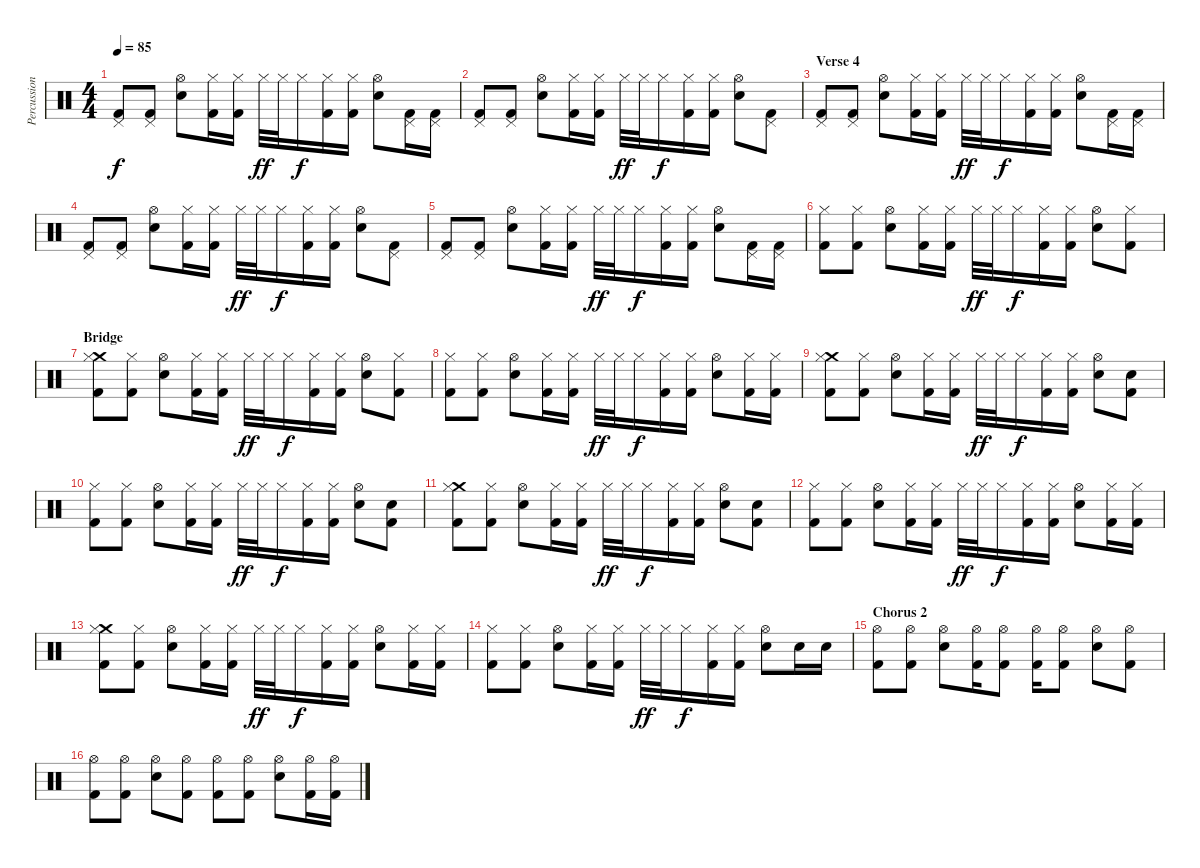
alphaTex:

\track ("Percussion" "Percussion") {instrument percussion}
\staff {score}
\articulation defaults
\ts (4 4)
\tempo 85
\clef neutral
\ks c
("Pedal Hi-Hat (hit)" "Kick (hit) 2").8{dy f} ("Pedal Hi-Hat (hit)" "Kick (hit) 2").8 ("Hi-Hat (open)" "Electric Snare (hit)").8 ("Hi-Hat (closed)" "Kick (hit) 2").16 ("Hi-Hat (closed)" "Kick (hit) 2").16 "Hi-Hat (closed)".32{dy ff} "Hi-Hat (closed)".32 "Hi-Hat (closed)".16{dy f} ("Hi-Hat (closed)" "Kick (hit) 2").16 ("Hi-Hat (closed)" "Kick (hit) 2").16 ("Hi-Hat (open)" "Electric Snare (hit)").8 ("Pedal Hi-Hat (hit)" "Kick (hit) 2").16 ("Pedal Hi-Hat (hit)" "Kick (hit) 2").16 |
("Pedal Hi-Hat (hit)" "Kick (hit) 2").8 ("Pedal Hi-Hat (hit)" "Kick (hit) 2").8 ("Hi-Hat (open)" "Electric Snare (hit)").8 ("Hi-Hat (closed)" "Kick (hit) 2").16 ("Hi-Hat (closed)" "Kick (hit) 2").16 "Hi-Hat (closed)".32{dy ff} "Hi-Hat (closed)".32 "Hi-Hat (closed)".16{dy f} ("Hi-Hat (closed)" "Kick (hit) 2").16 ("Hi-Hat (closed)" "Kick (hit) 2").16 ("Hi-Hat (open)" "Electric Snare (hit)").8 ("Pedal Hi-Hat (hit)" "Kick (hit) 2").8 |
\section ("" "Verse 4")
("Pedal Hi-Hat (hit)" "Kick (hit) 2").8 ("Pedal Hi-Hat (hit)" "Kick (hit) 2").8 ("Hi-Hat (open)" "Electric Snare (hit)").8 ("Hi-Hat (closed)" "Kick (hit) 2").16 ("Hi-Hat (closed)" "Kick (hit) 2").16 "Hi-Hat (closed)".32{dy ff} "Hi-Hat (closed)".32 "Hi-Hat (closed)".16{dy f} ("Hi-Hat (closed)" "Kick (hit) 2").16 ("Hi-Hat (closed)" "Kick (hit) 2").16 ("Hi-Hat (open)" "Electric Snare (hit)").8 ("Pedal Hi-Hat (hit)" "Kick (hit) 2").16 ("Pedal Hi-Hat (hit)" "Kick (hit) 2").16 |
("Pedal Hi-Hat (hit)" "Kick (hit) 2").8 ("Pedal Hi-Hat (hit)" "Kick (hit) 2").8 ("Hi-Hat (open)" "Electric Snare (hit)").8 ("Hi-Hat (closed)" "Kick (hit) 2").16 ("Hi-Hat (closed)" "Kick (hit) 2").16 "Hi-Hat (closed)".32{dy ff} "Hi-Hat (closed)".32 "Hi-Hat (closed)".16{dy f} ("Hi-Hat (closed)" "Kick (hit) 2").16 ("Hi-Hat (closed)" "Kick (hit) 2").16 ("Hi-Hat (open)" "Electric Snare (hit)").8 ("Pedal Hi-Hat (hit)" "Kick (hit) 2").8 |
("Pedal Hi-Hat (hit)" "Kick (hit) 2").8 ("Pedal Hi-Hat (hit)" "Kick (hit) 2").8 ("Hi-Hat (open)" "Electric Snare (hit)").8 ("Hi-Hat (closed)" "Kick (hit) 2").16 ("Hi-Hat (closed)" "Kick (hit) 2").16 "Hi-Hat (closed)".32{dy ff} "Hi-Hat (closed)".32 "Hi-Hat (closed)".16{dy f} ("Hi-Hat (closed)" "Kick (hit) 2").16 ("Hi-Hat (closed)" "Kick (hit) 2").16 ("Hi-Hat (open)" "Electric Snare (hit)").8 ("Pedal Hi-Hat (hit)" "Kick (hit) 2").16 ("Pedal Hi-Hat (hit)" "Kick (hit) 2").16 |
("Hi-Hat (closed)" "Kick (hit) 2").8 ("Hi-Hat (closed)" "Kick (hit) 2").8 ("Hi-Hat (open)" "Electric Snare (hit)").8 ("Hi-Hat (closed)" "Kick (hit) 2").16 ("Hi-Hat (closed)" "Kick (hit) 2").16 "Hi-Hat (closed)".32{dy ff} "Hi-Hat (closed)".32 "Hi-Hat (closed)".16{dy f} ("Hi-Hat (closed)" "Kick (hit) 2").16 ("Hi-Hat (closed)" "Kick (hit) 2").16 ("Hi-Hat (open)" "Electric Snare (hit)").8 ("Hi-Hat (closed)" "Kick (hit) 2").8 |
\section ("" "Bridge")
("Crash medium (hit)" "Hi-Hat (closed)" "Kick (hit) 2").8 ("Hi-Hat (closed)" "Kick (hit) 2").8 ("Hi-Hat (open)" "Electric Snare (hit)").8 ("Hi-Hat (closed)" "Kick (hit) 2").16 ("Hi-Hat (closed)" "Kick (hit) 2").16 "Hi-Hat (closed)".32{dy ff} "Hi-Hat (closed)".32 "Hi-Hat (closed)".16{dy f} ("Hi-Hat (closed)" "Kick (hit) 2").16 ("Hi-Hat (closed)" "Kick (hit) 2").16 ("Hi-Hat (open)" "Electric Snare (hit)").8 ("Hi-Hat (closed)" "Kick (hit) 2").8 |
("Hi-Hat (closed)" "Kick (hit) 2").8 ("Hi-Hat (closed)" "Kick (hit) 2").8 ("Hi-Hat (open)" "Electric Snare (hit)").8 ("Hi-Hat (closed)" "Kick (hit) 2").16 ("Hi-Hat (closed)" "Kick (hit) 2").16 "Hi-Hat (closed)".32{dy ff} "Hi-Hat (closed)".32 "Hi-Hat (closed)".16{dy f} ("Hi-Hat (closed)" "Kick (hit) 2").16 ("Hi-Hat (closed)" "Kick (hit) 2").16 ("Hi-Hat (open)" "Electric Snare (hit)").8 ("Hi-Hat (closed)" "Kick (hit) 2").16 ("Hi-Hat (closed)" "Kick (hit) 2").16 |
("Crash medium (hit)" "Hi-Hat (closed)" "Kick (hit) 2").8 ("Hi-Hat (closed)" "Kick (hit) 2").8 ("Hi-Hat (open)" "Electric Snare (hit)").8 ("Hi-Hat (closed)" "Kick (hit) 2").16 ("Hi-Hat (closed)" "Kick (hit) 2").16 "Hi-Hat (closed)".32{dy ff} "Hi-Hat (closed)".32 "Hi-Hat (closed)".16{dy f} ("Hi-Hat (closed)" "Kick (hit) 2").16 ("Hi-Hat (closed)" "Kick (hit) 2").16 ("Hi-Hat (open)" "Electric Snare (hit)").8 ("Electric Snare (hit)" "Kick (hit) 2").8 |
("Hi-Hat (closed)" "Kick (hit) 2").8 ("Hi-Hat (closed)" "Kick (hit) 2").8 ("Hi-Hat (open)" "Electric Snare (hit)").8 ("Hi-Hat (closed)" "Kick (hit) 2").16 ("Hi-Hat (closed)" "Kick (hit) 2").16 "Hi-Hat (closed)".32{dy ff} "Hi-Hat (closed)".32 "Hi-Hat (closed)".16{dy f} ("Hi-Hat (closed)" "Kick (hit) 2").16 ("Hi-Hat (closed)" "Kick (hit) 2").16 ("Hi-Hat (open)" "Electric Snare (hit)").8 ("Electric Snare (hit)" "Kick (hit) 2").8 |
("Crash medium (hit)" "Hi-Hat (closed)" "Kick (hit) 2").8 ("Hi-Hat (closed)" "Kick (hit) 2").8 ("Hi-Hat (open)" "Electric Snare (hit)").8 ("Hi-Hat (closed)" "Kick (hit) 2").16 ("Hi-Hat (closed)" "Kick (hit) 2").16 "Hi-Hat (closed)".32{dy ff} "Hi-Hat (closed)".32 "Hi-Hat (closed)".16{dy f} ("Hi-Hat (closed)" "Kick (hit) 2").16 ("Hi-Hat (closed)" "Kick (hit) 2").16 ("Hi-Hat (open)" "Electric Snare (hit)").8 ("Electric Snare (hit)" "Kick (hit) 2").8 |
("Hi-Hat (closed)" "Kick (hit) 2").8 ("Hi-Hat (closed)" "Kick (hit) 2").8 ("Hi-Hat (open)" "Electric Snare (hit)").8 ("Hi-Hat (closed)" "Kick (hit) 2").16 ("Hi-Hat (closed)" "Kick (hit) 2").16 "Hi-Hat (closed)".32{dy ff} "Hi-Hat (closed)".32 "Hi-Hat (closed)".16{dy f} ("Hi-Hat (closed)" "Kick (hit) 2").16 ("Hi-Hat (closed)" "Kick (hit) 2").16 ("Hi-Hat (open)" "Electric Snare (hit)").8 ("Hi-Hat (closed)" "Kick (hit) 2").16 ("Hi-Hat (closed)" "Kick (hit) 2").16 |
("Crash medium (hit)" "Hi-Hat (closed)" "Kick (hit) 2").8 ("Hi-Hat (closed)" "Kick (hit) 2").8 ("Hi-Hat (open)" "Electric Snare (hit)").8 ("Hi-Hat (closed)" "Kick (hit) 2").16 ("Hi-Hat (closed)" "Kick (hit) 2").16 "Hi-Hat (closed)".32{dy ff} "Hi-Hat (closed)".32 "Hi-Hat (closed)".16{dy f} ("Hi-Hat (closed)" "Kick (hit) 2").16 ("Hi-Hat (closed)" "Kick (hit) 2").16 ("Hi-Hat (open)" "Electric Snare (hit)").8 ("Hi-Hat (closed)" "Kick (hit) 2").16 ("Hi-Hat (closed)" "Kick (hit) 2").16 |
("Hi-Hat (closed)" "Kick (hit) 2").8 ("Hi-Hat (closed)" "Kick (hit) 2").8 ("Hi-Hat (open)" "Electric Snare (hit)").8 ("Hi-Hat (closed)" "Kick (hit) 2").16 ("Hi-Hat (closed)" "Kick (hit) 2").16 "Hi-Hat (closed)".32{dy ff} "Hi-Hat (closed)".32 "Hi-Hat (closed)".16{dy f} ("Hi-Hat (closed)" "Kick (hit) 2").16 ("Hi-Hat (closed)" "Kick (hit) 2").16 ("Hi-Hat (open)" "Electric Snare (hit)").8 "Electric Snare (hit)".16 "Electric Snare (hit)".16 |
\section ("" "Chorus 2")
("Hi-Hat (open)" "Kick (hit) 2").8 ("Hi-Hat (open)" "Kick (hit) 2").8 ("Hi-Hat (open)" "Electric Snare (hit)").8 ("Hi-Hat (open)" "Kick (hit) 2").16 ("Hi-Hat (open)" "Kick (hit) 2").8 ("Hi-Hat (open)" "Kick (hit) 2").16 ("Hi-Hat (open)" "Kick (hit) 2").8 ("Hi-Hat (open)" "Electric Snare (hit)").8 ("Hi-Hat (open)" "Kick (hit) 2").8 |
("Hi-Hat (open)" "Kick (hit) 2").8 ("Hi-Hat (open)" "Kick (hit) 2").8 ("Hi-Hat (open)" "Electric Snare (hit)").8 ("Hi-Hat (open)" "Kick (hit) 2").8 ("Hi-Hat (open)" "Kick (hit) 2").8 ("Hi-Hat (open)" "Kick (hit) 2").8 ("Hi-Hat (open)" "Electric Snare (hit)").8 ("Hi-Hat (open)" "Kick (hit) 2").16 ("Hi-Hat (open)" "Kick (hit) 2").16
